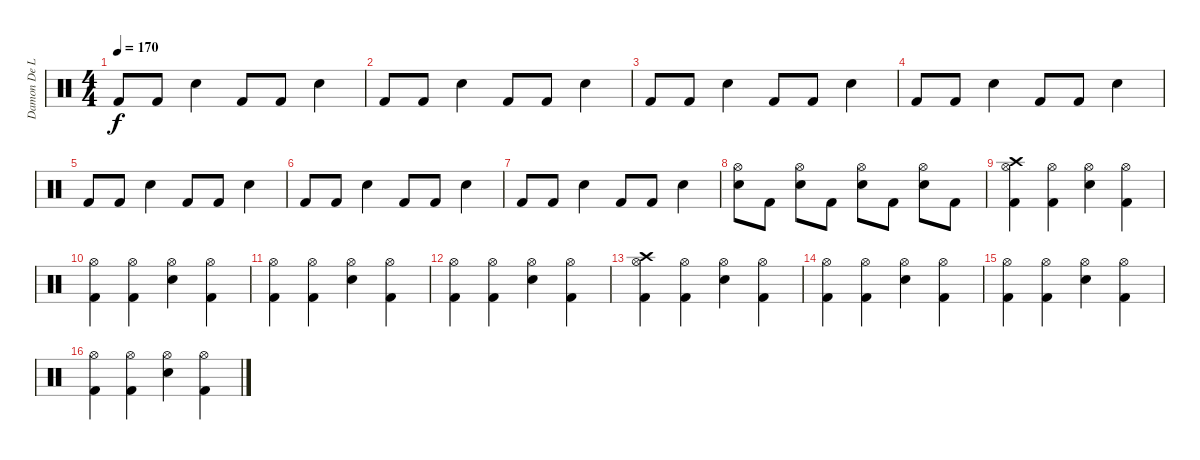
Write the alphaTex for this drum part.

\track ("Damon De La Paz" "Damon De L") {instrument percussion}
\staff {score}
\articulation defaults
\ts (4 4)
\tempo 170
\clef neutral
\ks c "Kick (hit) 2".8{dy f} "Kick (hit) 2".8 "Electric Snare (hit)".4 "Kick (hit) 2".8 "Kick (hit) 2".8 "Electric Snare (hit)".4
|
"Kick (hit) 2".8 "Kick (hit) 2".8 "Electric Snare (hit)".4 "Kick (hit) 2".8 "Kick (hit) 2".8 "Electric Snare (hit)".4 |
"Kick (hit) 2".8 "Kick (hit) 2".8 "Electric Snare (hit)".4 "Kick (hit) 2".8 "Kick (hit) 2".8 "Electric Snare (hit)".4 |
"Kick (hit) 2".8 "Kick (hit) 2".8 "Electric Snare (hit)".4 "Kick (hit) 2".8 "Kick (hit) 2".8 "Electric Snare (hit)".4 |
"Kick (hit) 2".8 "Kick (hit) 2".8 "Electric Snare (hit)".4 "Kick (hit) 2".8 "Kick (hit) 2".8 "Electric Snare (hit)".4 |
"Kick (hit) 2".8 "Kick (hit) 2".8 "Electric Snare (hit)".4 "Kick (hit) 2".8 "Kick (hit) 2".8 "Electric Snare (hit)".4 |
"Kick (hit) 2".8 "Kick (hit) 2".8 "Electric Snare (hit)".4 "Kick (hit) 2".8 "Kick (hit) 2".8 "Electric Snare (hit)".4 |
("Hi-Hat (open)" "Electric Snare (hit)").8 "Kick (hit) 2".8 ("Hi-Hat (open)" "Electric Snare (hit)").8 "Kick (hit) 2".8 ("Hi-Hat (open)" "Electric Snare (hit)").8 "Kick (hit) 2".8 ("Hi-Hat (open)" "Electric Snare (hit)").8 "Kick (hit) 2".8 |
("Crash high (hit)" "Hi-Hat (open)" "Kick (hit) 2").4 ("Hi-Hat (open)" "Kick (hit) 2").4 ("Hi-Hat (open)" "Electric Snare (hit)").4 ("Hi-Hat (open)" "Kick (hit) 2").4 |
("Hi-Hat (open)" "Kick (hit) 2").4 ("Hi-Hat (open)" "Kick (hit) 2").4 ("Hi-Hat (open)" "Electric Snare (hit)").4 ("Hi-Hat (open)" "Kick (hit) 2").4 |
("Hi-Hat (open)" "Kick (hit) 2").4 ("Hi-Hat (open)" "Kick (hit) 2").4 ("Hi-Hat (open)" "Electric Snare (hit)").4 ("Hi-Hat (open)" "Kick (hit) 2").4 |
("Hi-Hat (open)" "Kick (hit) 2").4 ("Hi-Hat (open)" "Kick (hit) 2").4 ("Hi-Hat (open)" "Electric Snare (hit)").4 ("Hi-Hat (open)" "Kick (hit) 2").4 |
("Crash high (hit)" "Hi-Hat (open)" "Kick (hit) 2").4 ("Hi-Hat (open)" "Kick (hit) 2").4 ("Hi-Hat (open)" "Electric Snare (hit)").4 ("Hi-Hat (open)" "Kick (hit) 2").4 |
("Hi-Hat (open)" "Kick (hit) 2").4 ("Hi-Hat (open)" "Kick (hit) 2").4 ("Hi-Hat (open)" "Electric Snare (hit)").4 ("Hi-Hat (open)" "Kick (hit) 2").4 |
("Hi-Hat (open)" "Kick (hit) 2").4 ("Hi-Hat (open)" "Kick (hit) 2").4 ("Hi-Hat (open)" "Electric Snare (hit)").4 ("Hi-Hat (open)" "Kick (hit) 2").4 |
("Hi-Hat (open)" "Kick (hit) 2").4 ("Hi-Hat (open)" "Kick (hit) 2").4 ("Hi-Hat (open)" "Electric Snare (hit)").4 ("Hi-Hat (open)" "Kick (hit) 2").4
